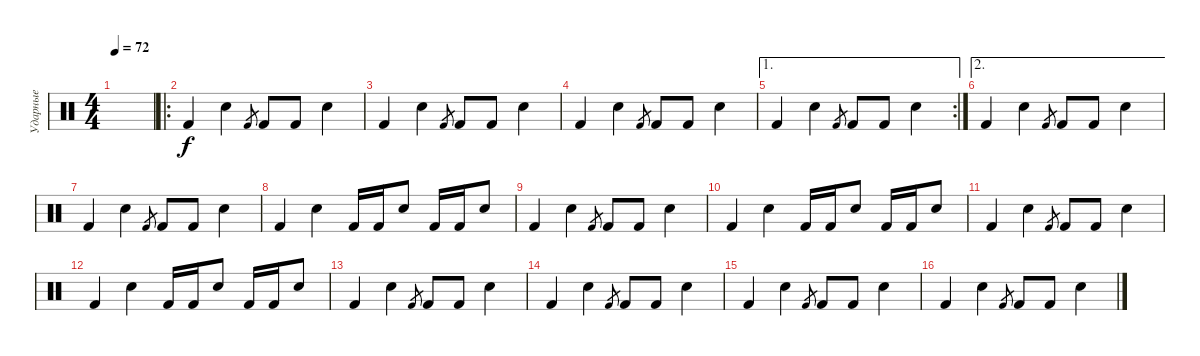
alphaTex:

\track ("Ударные" "Ударные") {instrument percussion}
\staff {score}
\articulation defaults
\ts (4 4)
\tempo 72
\clef neutral
\ks c
|
\ro "Kick (hit) 2".4 "Snare (hit) 2".4 "Kick (hit) 2".8{gr} "Kick (hit) 2".8 "Kick (hit) 2".8 "Snare (hit) 2".4
|
"Kick (hit) 2".4 "Snare (hit) 2".4 "Kick (hit) 2".8{gr} "Kick (hit) 2".8 "Kick (hit) 2".8 "Snare (hit) 2".4 |
"Kick (hit) 2".4 "Snare (hit) 2".4 "Kick (hit) 2".8{gr} "Kick (hit) 2".8 "Kick (hit) 2".8 "Snare (hit) 2".4 |
\ae 1
\rc 2 "Kick (hit) 2".4 "Snare (hit) 2".4 "Kick (hit) 2".8{gr} "Kick (hit) 2".8 "Kick (hit) 2".8 "Snare (hit) 2".4
|
\ae 2 "Kick (hit) 2".4 "Snare (hit) 2".4 "Kick (hit) 2".8{gr} "Kick (hit) 2".8 "Kick (hit) 2".8 "Snare (hit) 2".4
|
"Kick (hit) 2".4 "Snare (hit) 2".4 "Kick (hit) 2".8{gr} "Kick (hit) 2".8 "Kick (hit) 2".8 "Snare (hit) 2".4 |
"Kick (hit) 2".4 "Snare (hit) 2".4 "Kick (hit) 2".16 "Kick (hit) 2".16 "Snare (hit) 2".8 "Kick (hit) 2".16 "Kick (hit) 2".16 "Snare (hit) 2".8 |
"Kick (hit) 2".4 "Snare (hit) 2".4 "Kick (hit) 2".8{gr} "Kick (hit) 2".8 "Kick (hit) 2".8 "Snare (hit) 2".4 |
"Kick (hit) 2".4 "Snare (hit) 2".4 "Kick (hit) 2".16 "Kick (hit) 2".16 "Snare (hit) 2".8 "Kick (hit) 2".16 "Kick (hit) 2".16 "Snare (hit) 2".8 |
"Kick (hit) 2".4 "Snare (hit) 2".4 "Kick (hit) 2".8{gr} "Kick (hit) 2".8 "Kick (hit) 2".8 "Snare (hit) 2".4 |
"Kick (hit) 2".4 "Snare (hit) 2".4 "Kick (hit) 2".16 "Kick (hit) 2".16 "Snare (hit) 2".8 "Kick (hit) 2".16 "Kick (hit) 2".16 "Snare (hit) 2".8 |
"Kick (hit) 2".4 "Snare (hit) 2".4 "Kick (hit) 2".8{gr} "Kick (hit) 2".8 "Kick (hit) 2".8 "Snare (hit) 2".4 |
"Kick (hit) 2".4 "Snare (hit) 2".4 "Kick (hit) 2".8{gr} "Kick (hit) 2".8 "Kick (hit) 2".8 "Snare (hit) 2".4 |
"Kick (hit) 2".4 "Snare (hit) 2".4 "Kick (hit) 2".8{gr} "Kick (hit) 2".8 "Kick (hit) 2".8 "Snare (hit) 2".4 |
"Kick (hit) 2".4 "Snare (hit) 2".4 "Kick (hit) 2".8{gr} "Kick (hit) 2".8 "Kick (hit) 2".8 "Snare (hit) 2".4
